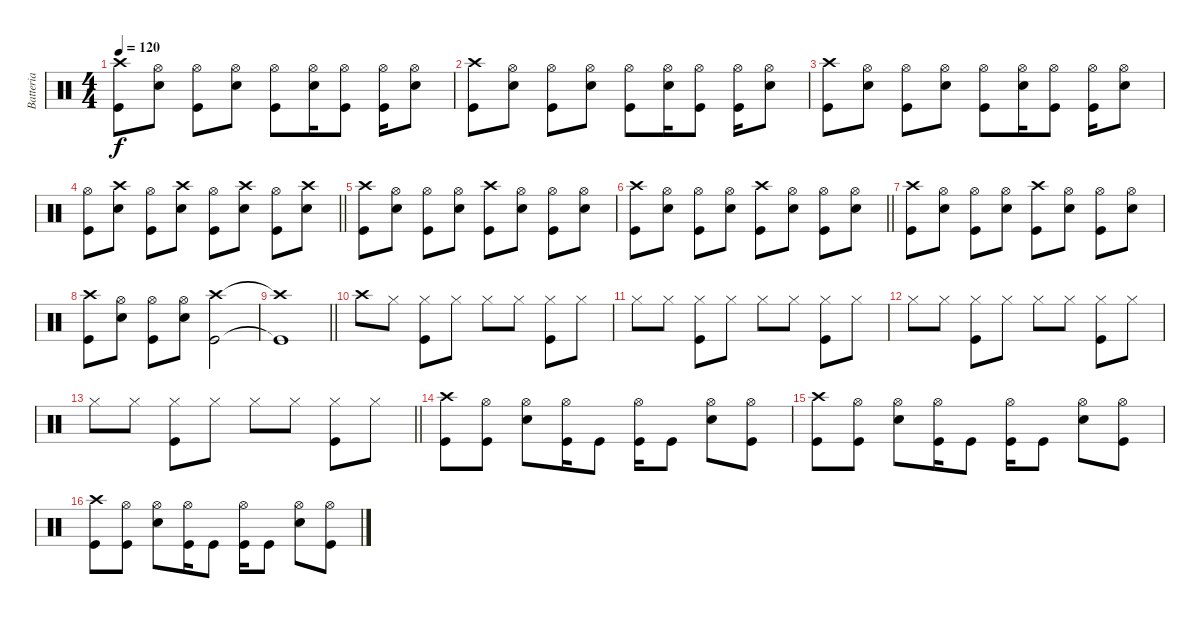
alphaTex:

\track ("Batteria" "Batteria") {instrument percussion}
\staff {score}
\articulation defaults
\ts (4 4)
\tempo 120
\clef neutral
\ks c
("Kick (hit)" "Crash high (hit)").8{dy f} ("Snare (hit) 2" "Hi-Hat (open)").8 ("Kick (hit)" "Hi-Hat (open)").8 ("Snare (hit) 2" "Hi-Hat (open)").8 ("Kick (hit)" "Hi-Hat (open)").8 ("Snare (hit) 2" "Hi-Hat (open)").16 ("Kick (hit)" "Hi-Hat (open)").8 ("Kick (hit)" "Hi-Hat (open)").16 ("Snare (hit) 2" "Hi-Hat (open)").8 |
("Kick (hit)" "Crash high (hit)").8 ("Snare (hit) 2" "Hi-Hat (open)").8 ("Kick (hit)" "Hi-Hat (open)").8 ("Snare (hit) 2" "Hi-Hat (open)").8 ("Kick (hit)" "Hi-Hat (open)").8 ("Snare (hit) 2" "Hi-Hat (open)").16 ("Kick (hit)" "Hi-Hat (open)").8 ("Kick (hit)" "Hi-Hat (open)").16 ("Snare (hit) 2" "Hi-Hat (open)").8 |
("Kick (hit)" "Crash high (hit)").8 ("Snare (hit) 2" "Hi-Hat (open)").8 ("Kick (hit)" "Hi-Hat (open)").8 ("Snare (hit) 2" "Hi-Hat (open)").8 ("Kick (hit)" "Hi-Hat (open)").8 ("Snare (hit) 2" "Hi-Hat (open)").16 ("Kick (hit)" "Hi-Hat (open)").8 ("Kick (hit)" "Hi-Hat (open)").16 ("Snare (hit) 2" "Hi-Hat (open)").8 |
\barLineRight lightlight
("Kick (hit)" "Hi-Hat (open)").8 ("Snare (hit) 2" "Crash high (hit)").8 ("Kick (hit)" "Hi-Hat (open)").8 ("Snare (hit) 2" "Crash high (hit)").8 ("Kick (hit)" "Hi-Hat (open)").8 ("Snare (hit) 2" "Crash high (hit)").8 ("Kick (hit)" "Hi-Hat (open)").8 ("Snare (hit) 2" "Crash high (hit)").8 |
("Kick (hit)" "Crash high (hit)").8 ("Snare (hit) 2" "Hi-Hat (open)").8 ("Kick (hit)" "Hi-Hat (open)").8 ("Snare (hit) 2" "Hi-Hat (open)").8 ("Kick (hit)" "Crash high (hit)").8 ("Snare (hit) 2" "Hi-Hat (open)").8 ("Kick (hit)" "Hi-Hat (open)").8 ("Snare (hit) 2" "Hi-Hat (open)").8 |
\barLineRight lightlight
("Kick (hit)" "Crash high (hit)").8 ("Snare (hit) 2" "Hi-Hat (open)").8 ("Kick (hit)" "Hi-Hat (open)").8 ("Snare (hit) 2" "Hi-Hat (open)").8 ("Kick (hit)" "Crash high (hit)").8 ("Snare (hit) 2" "Hi-Hat (open)").8 ("Kick (hit)" "Hi-Hat (open)").8 ("Snare (hit) 2" "Hi-Hat (open)").8 |
("Kick (hit)" "Crash high (hit)").8 ("Snare (hit) 2" "Hi-Hat (open)").8 ("Kick (hit)" "Hi-Hat (open)").8 ("Snare (hit) 2" "Hi-Hat (open)").8 ("Kick (hit)" "Crash high (hit)").8 ("Snare (hit) 2" "Hi-Hat (open)").8 ("Kick (hit)" "Hi-Hat (open)").8 ("Snare (hit) 2" "Hi-Hat (open)").8 |
("Kick (hit)" "Crash high (hit)").8 ("Snare (hit) 2" "Hi-Hat (open)").8 ("Kick (hit)" "Hi-Hat (open)").8 ("Snare (hit) 2" "Hi-Hat (open)").8 ("Kick (hit)" "Crash high (hit)").2 |
\barLineRight lightlight
("Kick (hit)"{t} "Crash high (hit)"{t}).1 |
"Crash high (hit)".8 "Hi-Hat (closed)".8 ("Kick (hit)" "Hi-Hat (closed)").8 "Hi-Hat (closed)".8 "Hi-Hat (closed)".8 "Hi-Hat (closed)".8 ("Kick (hit)" "Hi-Hat (closed)").8 "Hi-Hat (closed)".8 |
"Hi-Hat (closed)".8 "Hi-Hat (closed)".8 ("Kick (hit)" "Hi-Hat (closed)").8 "Hi-Hat (closed)".8 "Hi-Hat (closed)".8 "Hi-Hat (closed)".8 ("Kick (hit)" "Hi-Hat (closed)").8 "Hi-Hat (closed)".8 |
"Hi-Hat (closed)".8 "Hi-Hat (closed)".8 ("Kick (hit)" "Hi-Hat (closed)").8 "Hi-Hat (closed)".8 "Hi-Hat (closed)".8 "Hi-Hat (closed)".8 ("Kick (hit)" "Hi-Hat (closed)").8 "Hi-Hat (closed)".8 |
\barLineRight lightlight "Hi-Hat (closed)".8 "Hi-Hat (closed)".8
("Kick (hit)" "Hi-Hat (closed)").8 "Hi-Hat (closed)".8 "Hi-Hat (closed)".8 "Hi-Hat (closed)".8 ("Kick (hit)" "Hi-Hat (closed)").8 "Hi-Hat (closed)".8 |
("Kick (hit)" "Crash high (hit)").8 ("Kick (hit)" "Hi-Hat (open)").8 ("Snare (hit) 2" "Hi-Hat (open)").8 ("Kick (hit)" "Hi-Hat (open)").16 "Kick (hit)".8 ("Kick (hit)" "Hi-Hat (open)").16 "Kick (hit)".8 ("Snare (hit) 2" "Hi-Hat (open)").8 ("Kick (hit)" "Hi-Hat (open)").8 |
("Kick (hit)" "Crash high (hit)").8 ("Kick (hit)" "Hi-Hat (open)").8 ("Snare (hit) 2" "Hi-Hat (open)").8 ("Kick (hit)" "Hi-Hat (open)").16 "Kick (hit)".8 ("Kick (hit)" "Hi-Hat (open)").16 "Kick (hit)".8 ("Snare (hit) 2" "Hi-Hat (open)").8 ("Kick (hit)" "Hi-Hat (open)").8 |
("Kick (hit)" "Crash high (hit)").8 ("Kick (hit)" "Hi-Hat (open)").8 ("Snare (hit) 2" "Hi-Hat (open)").8 ("Kick (hit)" "Hi-Hat (open)").16 "Kick (hit)".8 ("Kick (hit)" "Hi-Hat (open)").16 "Kick (hit)".8 ("Snare (hit) 2" "Hi-Hat (open)").8 ("Kick (hit)" "Hi-Hat (open)").8
